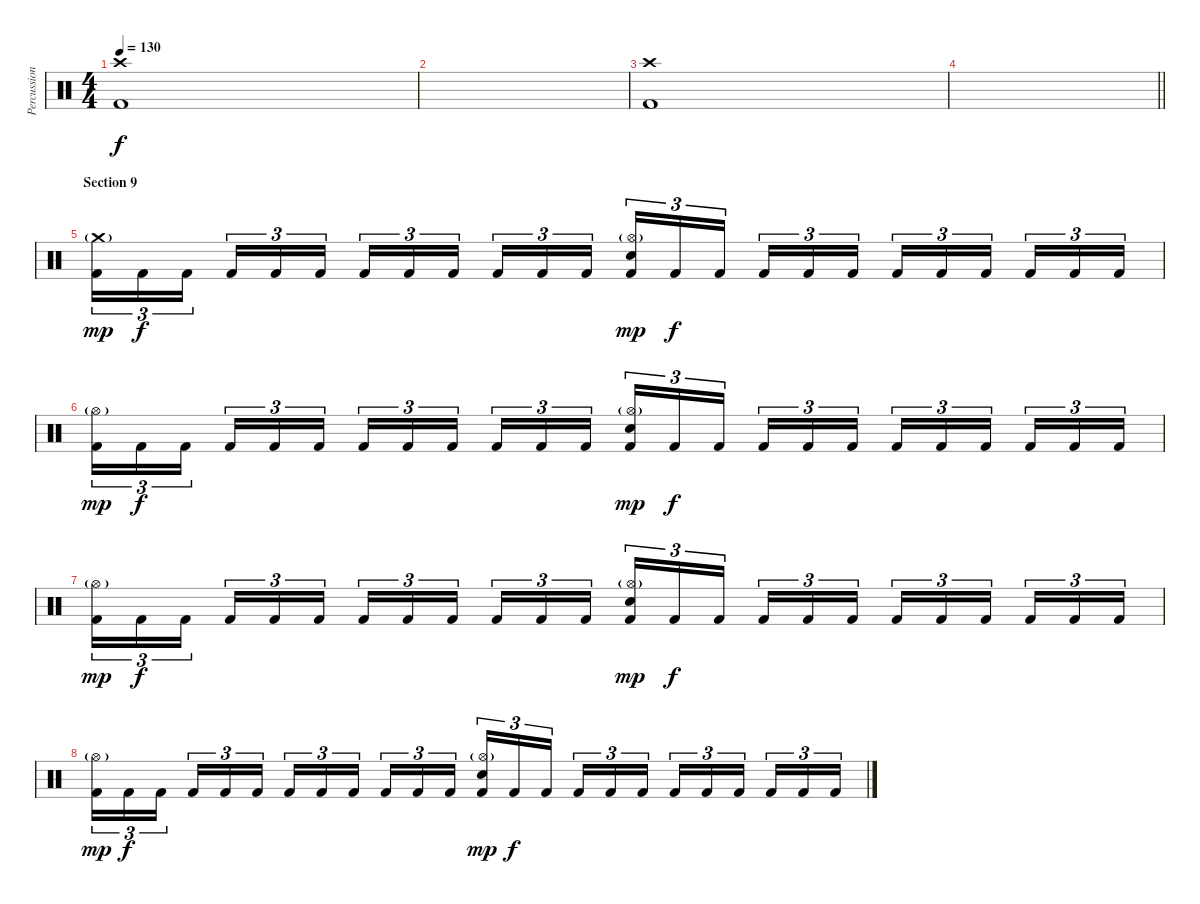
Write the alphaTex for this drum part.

\track ("Percussions" "Percussion") {instrument percussion}
\staff {score}
\articulation defaults
\ts (4 4)
\tempo 130
\clef neutral
\ks c
("Crash high (hit)" "Kick (hit) 2").1{dy f} |
|
("Crash high (hit)" "Kick (hit) 2").1 |
\barLineRight lightlight
|
\section ("" "Section 9")
("Crash medium (hit)"{g} "Kick (hit) 2").16{tu (3 2) dy mp} "Kick (hit) 2".16{tu (3 2) dy f} "Kick (hit) 2".16{tu (3 2)} "Kick (hit) 2".16{tu (3 2)} "Kick (hit) 2".16{tu (3 2)} "Kick (hit) 2".16{tu (3 2)} "Kick (hit) 2".16{tu (3 2)} "Kick (hit) 2".16{tu (3 2)} "Kick (hit) 2".16{tu (3 2)} "Kick (hit) 2".16{tu (3 2)} "Kick (hit) 2".16{tu (3 2)} "Kick (hit) 2".16{tu (3 2)} ("Hi-Hat (open)"{g} "Electric Snare (hit)" "Kick (hit) 2").16{tu (3 2) dy mp} "Kick (hit) 2".16{tu (3 2) dy f} "Kick (hit) 2".16{tu (3 2)} "Kick (hit) 2".16{tu (3 2)} "Kick (hit) 2".16{tu (3 2)} "Kick (hit) 2".16{tu (3 2)} "Kick (hit) 2".16{tu (3 2)} "Kick (hit) 2".16{tu (3 2)} "Kick (hit) 2".16{tu (3 2)} "Kick (hit) 2".16{tu (3 2)} "Kick (hit) 2".16{tu (3 2)} "Kick (hit) 2".16{tu (3 2)} |
("Hi-Hat (open)"{g} "Kick (hit) 2").16{tu (3 2) dy mp} "Kick (hit) 2".16{tu (3 2) dy f} "Kick (hit) 2".16{tu (3 2)} "Kick (hit) 2".16{tu (3 2)} "Kick (hit) 2".16{tu (3 2)} "Kick (hit) 2".16{tu (3 2)} "Kick (hit) 2".16{tu (3 2)} "Kick (hit) 2".16{tu (3 2)} "Kick (hit) 2".16{tu (3 2)} "Kick (hit) 2".16{tu (3 2)} "Kick (hit) 2".16{tu (3 2)} "Kick (hit) 2".16{tu (3 2)} ("Hi-Hat (open)"{g} "Electric Snare (hit)" "Kick (hit) 2").16{tu (3 2) dy mp} "Kick (hit) 2".16{tu (3 2) dy f} "Kick (hit) 2".16{tu (3 2)} "Kick (hit) 2".16{tu (3 2)} "Kick (hit) 2".16{tu (3 2)} "Kick (hit) 2".16{tu (3 2)} "Kick (hit) 2".16{tu (3 2)} "Kick (hit) 2".16{tu (3 2)} "Kick (hit) 2".16{tu (3 2)} "Kick (hit) 2".16{tu (3 2)} "Kick (hit) 2".16{tu (3 2)} "Kick (hit) 2".16{tu (3 2)} |
("Hi-Hat (open)"{g} "Kick (hit) 2").16{tu (3 2) dy mp} "Kick (hit) 2".16{tu (3 2) dy f} "Kick (hit) 2".16{tu (3 2)} "Kick (hit) 2".16{tu (3 2)} "Kick (hit) 2".16{tu (3 2)} "Kick (hit) 2".16{tu (3 2)} "Kick (hit) 2".16{tu (3 2)} "Kick (hit) 2".16{tu (3 2)} "Kick (hit) 2".16{tu (3 2)} "Kick (hit) 2".16{tu (3 2)} "Kick (hit) 2".16{tu (3 2)} "Kick (hit) 2".16{tu (3 2)} ("Hi-Hat (open)"{g} "Electric Snare (hit)" "Kick (hit) 2").16{tu (3 2) dy mp} "Kick (hit) 2".16{tu (3 2) dy f} "Kick (hit) 2".16{tu (3 2)} "Kick (hit) 2".16{tu (3 2)} "Kick (hit) 2".16{tu (3 2)} "Kick (hit) 2".16{tu (3 2)} "Kick (hit) 2".16{tu (3 2)} "Kick (hit) 2".16{tu (3 2)} "Kick (hit) 2".16{tu (3 2)} "Kick (hit) 2".16{tu (3 2)} "Kick (hit) 2".16{tu (3 2)} "Kick (hit) 2".16{tu (3 2)} |
("Hi-Hat (open)"{g} "Kick (hit) 2").16{tu (3 2) dy mp} "Kick (hit) 2".16{tu (3 2) dy f} "Kick (hit) 2".16{tu (3 2)} "Kick (hit) 2".16{tu (3 2)} "Kick (hit) 2".16{tu (3 2)} "Kick (hit) 2".16{tu (3 2)} "Kick (hit) 2".16{tu (3 2)} "Kick (hit) 2".16{tu (3 2)} "Kick (hit) 2".16{tu (3 2)} "Kick (hit) 2".16{tu (3 2)} "Kick (hit) 2".16{tu (3 2)} "Kick (hit) 2".16{tu (3 2)} ("Hi-Hat (open)"{g} "Electric Snare (hit)" "Kick (hit) 2").16{tu (3 2) dy mp} "Kick (hit) 2".16{tu (3 2) dy f} "Kick (hit) 2".16{tu (3 2)} "Kick (hit) 2".16{tu (3 2)} "Kick (hit) 2".16{tu (3 2)} "Kick (hit) 2".16{tu (3 2)} "Kick (hit) 2".16{tu (3 2)} "Kick (hit) 2".16{tu (3 2)} "Kick (hit) 2".16{tu (3 2)} "Kick (hit) 2".16{tu (3 2)} "Kick (hit) 2".16{tu (3 2)} "Kick (hit) 2".16{tu (3 2)}
